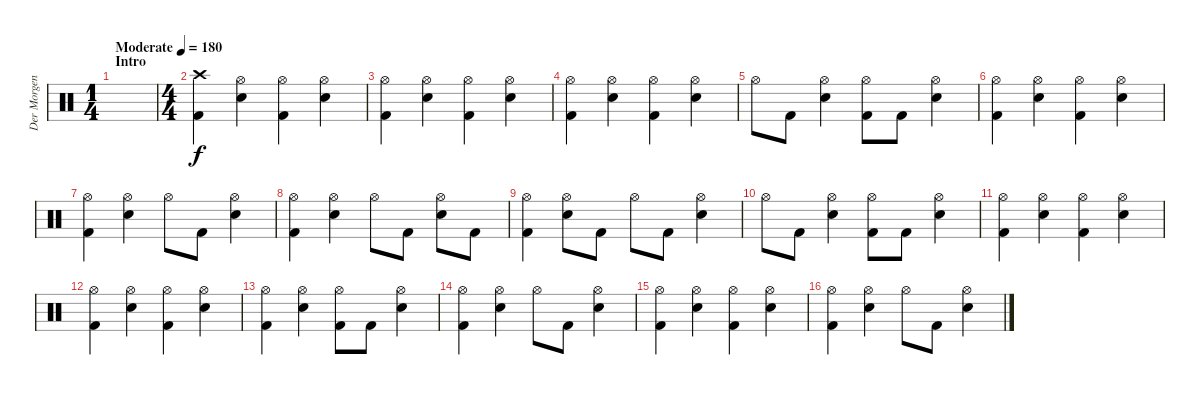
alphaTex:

\track ("Der Morgenstern" "Der Morgen") {instrument percussion}
\staff {score}
\articulation defaults
\ts (1 4)
\section ("" "Intro")
\tempo (180 "Moderate")
\clef neutral
\ks c
|
\ts (4 4)
("Crash high (hit)" "Kick (hit) 2").4 ("Hi-Hat (open)" "Electric Snare (hit)").4 ("Hi-Hat (open)" "Kick (hit) 2").4 ("Hi-Hat (open)" "Electric Snare (hit)").4 |
("Hi-Hat (open)" "Kick (hit) 2").4 ("Hi-Hat (open)" "Electric Snare (hit)").4 ("Hi-Hat (open)" "Kick (hit) 2").4 ("Hi-Hat (open)" "Electric Snare (hit)").4 |
("Hi-Hat (open)" "Kick (hit) 2").4 ("Hi-Hat (open)" "Electric Snare (hit)").4 ("Hi-Hat (open)" "Kick (hit) 2").4 ("Hi-Hat (open)" "Electric Snare (hit)").4 |
"Hi-Hat (open)".8 "Kick (hit) 2".8 ("Hi-Hat (open)" "Electric Snare (hit)").4 ("Hi-Hat (open)" "Kick (hit) 2").8 "Kick (hit) 2".8 ("Hi-Hat (open)" "Electric Snare (hit)").4 |
("Hi-Hat (open)" "Kick (hit) 2").4 ("Hi-Hat (open)" "Electric Snare (hit)").4 ("Hi-Hat (open)" "Kick (hit) 2").4 ("Hi-Hat (open)" "Electric Snare (hit)").4 |
("Hi-Hat (open)" "Kick (hit) 2").4 ("Hi-Hat (open)" "Electric Snare (hit)").4 "Hi-Hat (open)".8 "Kick (hit) 2".8 ("Hi-Hat (open)" "Electric Snare (hit)").4 |
("Hi-Hat (open)" "Kick (hit) 2").4 ("Hi-Hat (open)" "Electric Snare (hit)").4 "Hi-Hat (open)".8 "Kick (hit) 2".8 ("Hi-Hat (open)" "Electric Snare (hit)").8 "Kick (hit) 2".8 |
("Hi-Hat (open)" "Kick (hit) 2").4 ("Hi-Hat (open)" "Electric Snare (hit)").8 "Kick (hit) 2".8 "Hi-Hat (open)".8 "Kick (hit) 2".8 ("Hi-Hat (open)" "Electric Snare (hit)").4 |
"Hi-Hat (open)".8 "Kick (hit) 2".8 ("Hi-Hat (open)" "Electric Snare (hit)").4 ("Hi-Hat (open)" "Kick (hit) 2").8 "Kick (hit) 2".8 ("Hi-Hat (open)" "Electric Snare (hit)").4 |
("Hi-Hat (open)" "Kick (hit) 2").4 ("Hi-Hat (open)" "Electric Snare (hit)").4 ("Hi-Hat (open)" "Kick (hit) 2").4 ("Hi-Hat (open)" "Electric Snare (hit)").4 |
("Hi-Hat (open)" "Kick (hit) 2").4 ("Hi-Hat (open)" "Electric Snare (hit)").4 ("Hi-Hat (open)" "Kick (hit) 2").4 ("Hi-Hat (open)" "Electric Snare (hit)").4 |
("Hi-Hat (open)" "Kick (hit) 2").4 ("Hi-Hat (open)" "Electric Snare (hit)").4 ("Hi-Hat (open)" "Kick (hit) 2").8 "Kick (hit) 2".8 ("Hi-Hat (open)" "Electric Snare (hit)").4 |
("Hi-Hat (open)" "Kick (hit) 2").4 ("Hi-Hat (open)" "Electric Snare (hit)").4 "Hi-Hat (open)".8 "Kick (hit) 2".8 ("Hi-Hat (open)" "Electric Snare (hit)").4 |
("Hi-Hat (open)" "Kick (hit) 2").4 ("Hi-Hat (open)" "Electric Snare (hit)").4 ("Hi-Hat (open)" "Kick (hit) 2").4 ("Hi-Hat (open)" "Electric Snare (hit)").4 |
("Hi-Hat (open)" "Kick (hit) 2").4 ("Hi-Hat (open)" "Electric Snare (hit)").4 "Hi-Hat (open)".8 "Kick (hit) 2".8 ("Hi-Hat (open)" "Electric Snare (hit)").4
